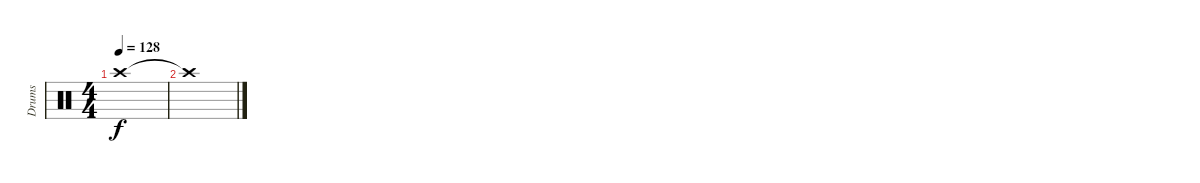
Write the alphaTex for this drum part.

\track ("Drums" "Drums") {instrument percussion}
\staff {score}
\articulation defaults
\ts (4 4)
\tempo 128
\clef neutral
\ks c "Crash high (hit)".1{dy f}
|
"Crash high (hit)"{t}.1
